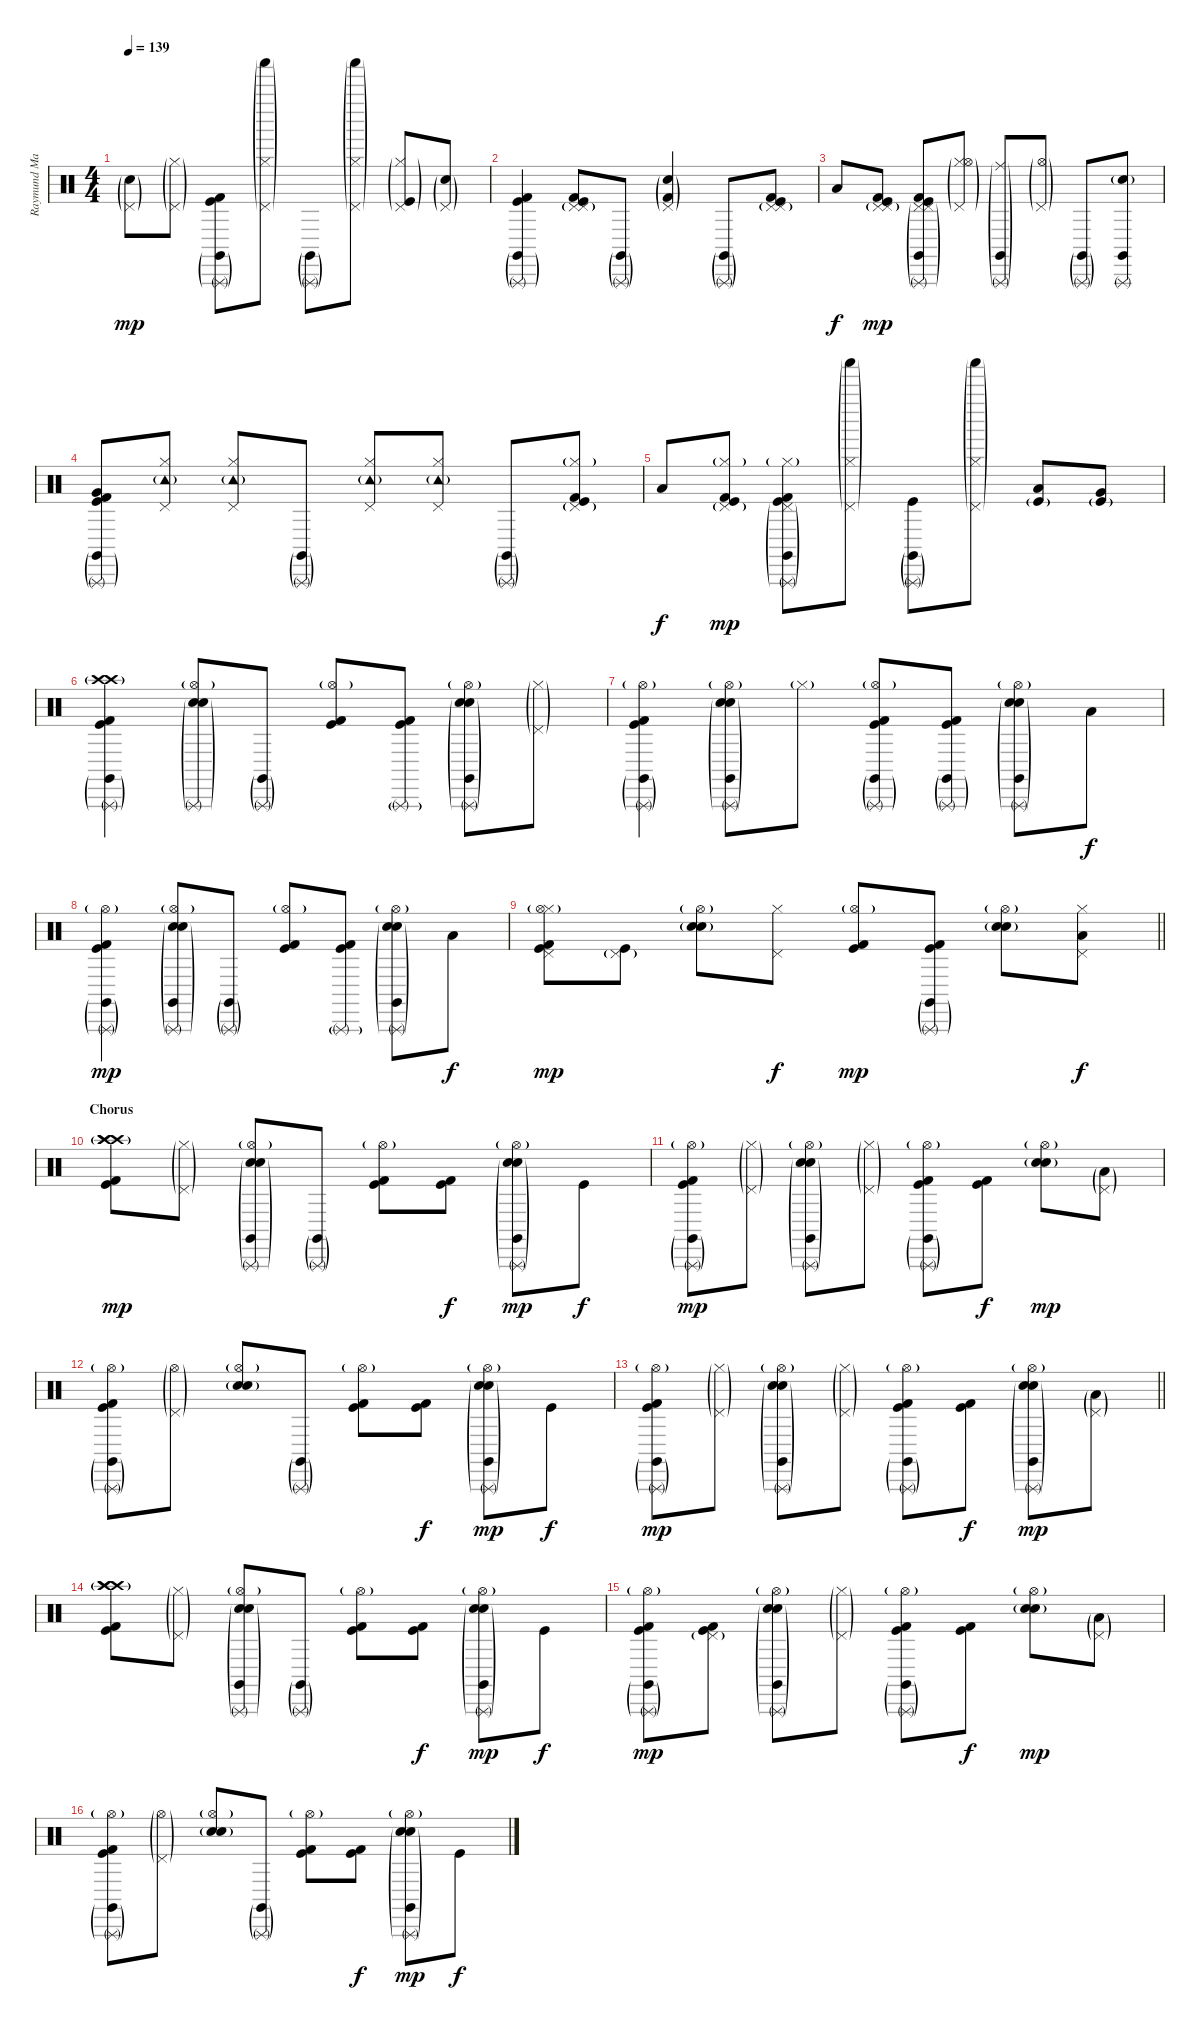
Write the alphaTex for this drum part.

\track ("Raymund Marasigan(Drums)" "Raymund Ma") {instrument percussion}
\staff {score}
\articulation defaults
\ts (4 4)
\tempo 139
\clef neutral
\ks c
("Pedal Hi-Hat (hit)"{g} "Electric Snare (hit)"{g}).8{dy mp} ("Pedal Hi-Hat (hit)"{g} "Hi-Hat (closed)"{g}).8 ("Kick (hit) 2" "Kick (hit)" "Triangle (rnute)"{g} "Claves (hit)"{g}).8 ("Pedal Hi-Hat (hit)"{g} "Hi-Hat (closed)"{g} "Shaker (hit)"{g}).8 ("Triangle (rnute)"{g} "Claves (hit)"{g}).8 ("Pedal Hi-Hat (hit)"{g} "Hi-Hat (closed)"{g} "Shaker (hit)"{g}).8 ("Pedal Hi-Hat (hit)"{g} "Hi-Hat (closed)"{g} "Kick (hit)"{g}).8 ("Pedal Hi-Hat (hit)"{g} "Snare (hit) 2"{g}).8 |
("Kick (hit) 2" "Kick (hit)" "Triangle (rnute)"{g} "Claves (hit)"{g}).4 ("Pedal Hi-Hat (hit)"{g} "Pedal Hi-Hat (hit)"{g} "Kick (hit) 2" "Kick (hit)").8 ("Triangle (rnute)"{g} "Claves (hit)"{g}).8 ("Pedal Hi-Hat (hit)"{g} "Electric Snare (hit)"{g} "Kick (hit) 2"{g}).4 ("Triangle (rnute)"{g} "Claves (hit)"{g}).8 ("Pedal Hi-Hat (hit)"{g} "Pedal Hi-Hat (hit)"{g} "Kick (hit) 2" "Kick (hit)").8 |
"Low Tom (hit)".8{dy f} ("Pedal Hi-Hat (hit)"{g} "Pedal Hi-Hat (hit)"{g} "Kick (hit) 2" "Kick (hit)").8{dy mp} ("Pedal Hi-Hat (hit)"{g} "Pedal Hi-Hat (hit)"{g} "Kick (hit)" "Kick (hit) 2" "Triangle (rnute)"{g} "Claves (hit)"{g}).8 ("Pedal Hi-Hat (hit)"{g} "Hi-Hat (closed)"{g} "Hi-Hat (open)"{g}).8 ("Triangle (rnute)"{g} "Claves (hit)"{g} "Ride (middle)"{g}).8 ("Pedal Hi-Hat (hit)"{g} "Hi-Hat (open)"{g}).8 ("Claves (hit)"{g} "Triangle (rnute)"{g}).8 ("Claves (hit)" "Triangle (rnute)" "Electric Snare (hit)"{g}).8 |
("Kick (hit) 2" "Kick (hit)" "Very Low Tom (hit)" "Triangle (rnute)"{g} "Claves (hit)"{g}).8 ("Pedal Hi-Hat (hit)" "Tambourine (hit)"{g} "Hi-Hat (closed)").8 ("Pedal Hi-Hat (hit)" "Tambourine (hit)"{g} "Hi-Hat (closed)").8 ("Triangle (rnute)"{g} "Claves (hit)"{g}).8 ("Pedal Hi-Hat (hit)" "Tambourine (hit)"{g} "Hi-Hat (closed)").8 ("Pedal Hi-Hat (hit)" "Tambourine (hit)"{g} "Hi-Hat (closed)").8 ("Triangle (rnute)"{g} "Claves (hit)"{g}).8 ("Kick (hit) 2" "Kick (hit)" "Pedal Hi-Hat (hit)"{g} "Hi-Hat (closed)"{g}).8 |
"Low Tom (hit)".8{dy f} ("Pedal Hi-Hat (hit)"{g} "Hi-Hat (closed)"{g} "Kick (hit) 2" "Kick (hit)").8{dy mp} ("Pedal Hi-Hat (hit)"{g} "Hi-Hat (closed)"{g} "Kick (hit) 2" "Kick (hit)" "Claves (hit)"{g} "Triangle (rnute)"{g}).8 ("Pedal Hi-Hat (hit)"{g} "Hi-Hat (closed)"{g} "Shaker (hit)"{g}).8 ("Triangle (rnute)"{g} "Claves (hit)"{g} "Kick (hit)").8 ("Pedal Hi-Hat (hit)"{g} "Hi-Hat (closed)"{g} "Shaker (hit)"{g}).8 ("Low Tom (hit)" "Kick (hit)"{g}).8 ("Very Low Tom (hit)" "Kick (hit)"{g}).8 |
("Crash high (hit)"{g} "Crash high (hit)"{g} "Kick (hit) 2" "Kick (hit)" "Triangle (rnute)"{g} "Claves (hit)"{g}).4 ("Electric Snare (hit)" "Snare (hit) 2"{g} "Hi-Hat (open)"{g} "Triangle (rnute)"{g}).8 ("Triangle (rnute)"{g} "Claves (hit)"{g}).8 ("Kick (hit) 2" "Kick (hit)" "Hi-Hat (open)"{g}).8 ("Kick (hit) 2" "Kick (hit)" "Triangle (rnute)"{g}).8 ("Electric Snare (hit)" "Snare (hit) 2"{g} "Hi-Hat (open)"{g} "Triangle (rnute)"{g} "Claves (hit)"{g}).8 ("Pedal Hi-Hat (hit)"{g} "Hi-Hat (closed)"{g}).8 |
("Triangle (rnute)"{g} "Claves (hit)"{g} "Kick (hit) 2" "Kick (hit)" "Hi-Hat (open)"{g}).4 ("Electric Snare (hit)" "Snare (hit) 2"{g} "Hi-Hat (open)"{g} "Triangle (rnute)"{g} "Claves (hit)"{g}).8 "Hi-Hat (closed)"{g}.8 ("Triangle (rnute)"{g} "Claves (hit)"{g} "Kick (hit) 2" "Kick (hit)" "Hi-Hat (open)"{g}).8 ("Triangle (rnute)"{g} "Claves (hit)"{g} "Kick (hit) 2" "Kick (hit)").8 ("Electric Snare (hit)" "Snare (hit) 2"{g} "Hi-Hat (open)"{g} "Triangle (rnute)"{g} "Claves (hit)"{g}).8 "Low Tom (hit)".8{dy f} |
("Triangle (rnute)"{g} "Claves (hit)"{g} "Kick (hit) 2" "Kick (hit)" "Hi-Hat (open)"{g}).4{dy mp} ("Electric Snare (hit)" "Snare (hit) 2"{g} "Hi-Hat (open)"{g} "Triangle (rnute)"{g} "Claves (hit)"{g}).8 ("Triangle (rnute)"{g} "Claves (hit)"{g}).8 ("Kick (hit) 2" "Kick (hit)" "Hi-Hat (open)"{g}).8 ("Kick (hit) 2" "Kick (hit)" "Triangle (rnute)"{g}).8 ("Electric Snare (hit)" "Snare (hit) 2"{g} "Hi-Hat (open)"{g} "Triangle (rnute)"{g} "Claves (hit)"{g}).8 "Low Tom (hit)".8{dy f} |
\barLineRight lightlight
("Pedal Hi-Hat (hit)" "Hi-Hat (closed)" "Hi-Hat (open)"{g} "Kick (hit) 2" "Kick (hit)").8{bd 60 dy mp} ("Pedal Hi-Hat (hit)"{g} "Kick (hit)").8 ("Electric Snare (hit)" "Snare (hit) 2"{g} "Hi-Hat (open)"{g}).8 ("Pedal Hi-Hat (hit)" "Hi-Hat (closed)").8{dy f} ("Kick (hit) 2" "Kick (hit)" "Hi-Hat (open)"{g}).8{dy mp} ("Kick (hit) 2" "Kick (hit)" "Triangle (rnute)"{g} "Claves (hit)"{g}).8 ("Electric Snare (hit)" "Snare (hit) 2"{g} "Hi-Hat (open)"{g}).8 ("Pedal Hi-Hat (hit)" "Hi-Hat (closed)" "Low Tom (hit)").8{dy f} |
\section ("" "Chorus")
("Crash high (hit)"{g} "Crash high (hit)"{g} "Crash high (hit)"{g} "Kick (hit) 2" "Kick (hit)").8{dy mp} ("Pedal Hi-Hat (hit)"{g} "Hi-Hat (closed)"{g}).8 ("Electric Snare (hit)" "Snare (hit) 2"{g} "Hi-Hat (open)"{g} "Triangle (rnute)"{g} "Claves (hit)"{g}).8 ("Triangle (rnute)"{g} "Claves (hit)"{g}).8 ("Kick (hit) 2" "Kick (hit)" "Hi-Hat (open)"{g}).8 ("Kick (hit) 2" "Kick (hit)").8{dy f} ("Electric Snare (hit)" "Snare (hit) 2"{g} "Hi-Hat (open)"{g} "Triangle (rnute)"{g} "Claves (hit)"{g}).8{dy mp} "Kick (hit)".8{dy f} |
("Kick (hit) 2" "Kick (hit)" "Triangle (rnute)"{g} "Claves (hit)"{g} "Hi-Hat (open)"{g}).8{dy mp} ("Pedal Hi-Hat (hit)"{g} "Hi-Hat (closed)"{g}).8 ("Electric Snare (hit)" "Snare (hit) 2"{g} "Hi-Hat (open)"{g} "Triangle (rnute)"{g} "Claves (hit)"{g}).8 ("Pedal Hi-Hat (hit)"{g} "Hi-Hat (closed)"{g}).8 ("Kick (hit) 2" "Kick (hit)" "Triangle (rnute)"{g} "Claves (hit)"{g} "Hi-Hat (open)"{g}).8 ("Kick (hit) 2" "Kick (hit)").8{dy f} ("Electric Snare (hit)" "Snare (hit) 2"{g} "Hi-Hat (open)"{g}).8{dy mp} ("Pedal Hi-Hat (hit)"{g} "Low Tom (hit)"{g}).8 |
("Hi-Hat (open)"{g} "Triangle (rnute)"{g} "Claves (hit)"{g} "Kick (hit) 2" "Kick (hit)").8 ("Pedal Hi-Hat (hit)"{g} "Hi-Hat (open)"{g}).8 ("Electric Snare (hit)" "Snare (hit) 2"{g} "Hi-Hat (open)"{g}).8 ("Triangle (rnute)"{g} "Claves (hit)"{g}).8 ("Kick (hit) 2" "Kick (hit)" "Hi-Hat (open)"{g}).8 ("Kick (hit) 2" "Kick (hit)").8{dy f} ("Electric Snare (hit)" "Snare (hit) 2"{g} "Hi-Hat (open)"{g} "Triangle (rnute)"{g} "Claves (hit)"{g}).8{dy mp} "Kick (hit)".8{dy f} |
\barLineRight lightlight
("Kick (hit) 2" "Kick (hit)" "Triangle (rnute)"{g} "Claves (hit)"{g} "Hi-Hat (open)"{g}).8{dy mp} ("Pedal Hi-Hat (hit)"{g} "Hi-Hat (closed)"{g}).8 ("Electric Snare (hit)" "Snare (hit) 2"{g} "Hi-Hat (open)"{g} "Triangle (rnute)"{g} "Claves (hit)"{g}).8 ("Pedal Hi-Hat (hit)"{g} "Hi-Hat (closed)"{g}).8 ("Kick (hit) 2" "Kick (hit)" "Triangle (rnute)"{g} "Claves (hit)"{g} "Hi-Hat (open)"{g}).8 ("Kick (hit) 2" "Kick (hit)").8{dy f} ("Electric Snare (hit)" "Snare (hit) 2"{g} "Hi-Hat (open)"{g} "Triangle (rnute)"{g} "Claves (hit)"{g}).8{dy mp} ("Pedal Hi-Hat (hit)"{g} "Low Tom (hit)"{g}).8 |
("Crash high (hit)"{g} "Crash high (hit)"{g} "Crash high (hit)"{g} "Kick (hit) 2" "Kick (hit)").8 ("Pedal Hi-Hat (hit)"{g} "Hi-Hat (closed)"{g}).8 ("Electric Snare (hit)" "Snare (hit) 2"{g} "Hi-Hat (open)"{g} "Triangle (rnute)"{g} "Claves (hit)"{g}).8 ("Triangle (rnute)"{g} "Claves (hit)"{g}).8 ("Kick (hit) 2" "Kick (hit)" "Hi-Hat (open)"{g}).8 ("Kick (hit) 2" "Kick (hit)").8{dy f} ("Electric Snare (hit)" "Snare (hit) 2"{g} "Hi-Hat (open)"{g} "Triangle (rnute)"{g} "Claves (hit)"{g}).8{dy mp} "Kick (hit)".8{dy f} |
("Kick (hit) 2" "Kick (hit)" "Triangle (rnute)"{g} "Claves (hit)"{g} "Hi-Hat (open)"{g}).8{dy mp} ("Kick (hit) 2" "Kick (hit)" "Pedal Hi-Hat (hit)"{g}).8 ("Electric Snare (hit)" "Snare (hit) 2"{g} "Hi-Hat (open)"{g} "Triangle (rnute)"{g} "Claves (hit)"{g}).8 ("Pedal Hi-Hat (hit)"{g} "Hi-Hat (closed)"{g}).8 ("Kick (hit) 2" "Kick (hit)" "Triangle (rnute)"{g} "Claves (hit)"{g} "Hi-Hat (open)"{g}).8 ("Kick (hit) 2" "Kick (hit)").8{dy f} ("Electric Snare (hit)" "Snare (hit) 2"{g} "Hi-Hat (open)"{g}).8{dy mp} ("Pedal Hi-Hat (hit)"{g} "Low Tom (hit)"{g}).8 |
("Hi-Hat (open)"{g} "Triangle (rnute)"{g} "Claves (hit)"{g} "Kick (hit) 2" "Kick (hit)").8 ("Pedal Hi-Hat (hit)"{g} "Hi-Hat (open)"{g}).8 ("Electric Snare (hit)" "Snare (hit) 2"{g} "Hi-Hat (open)"{g}).8 ("Triangle (rnute)"{g} "Claves (hit)"{g}).8 ("Kick (hit) 2" "Kick (hit)" "Hi-Hat (open)"{g}).8 ("Kick (hit) 2" "Kick (hit)").8{dy f} ("Electric Snare (hit)" "Snare (hit) 2"{g} "Hi-Hat (open)"{g} "Triangle (rnute)"{g} "Claves (hit)"{g}).8{dy mp} "Kick (hit)".8{dy f}
